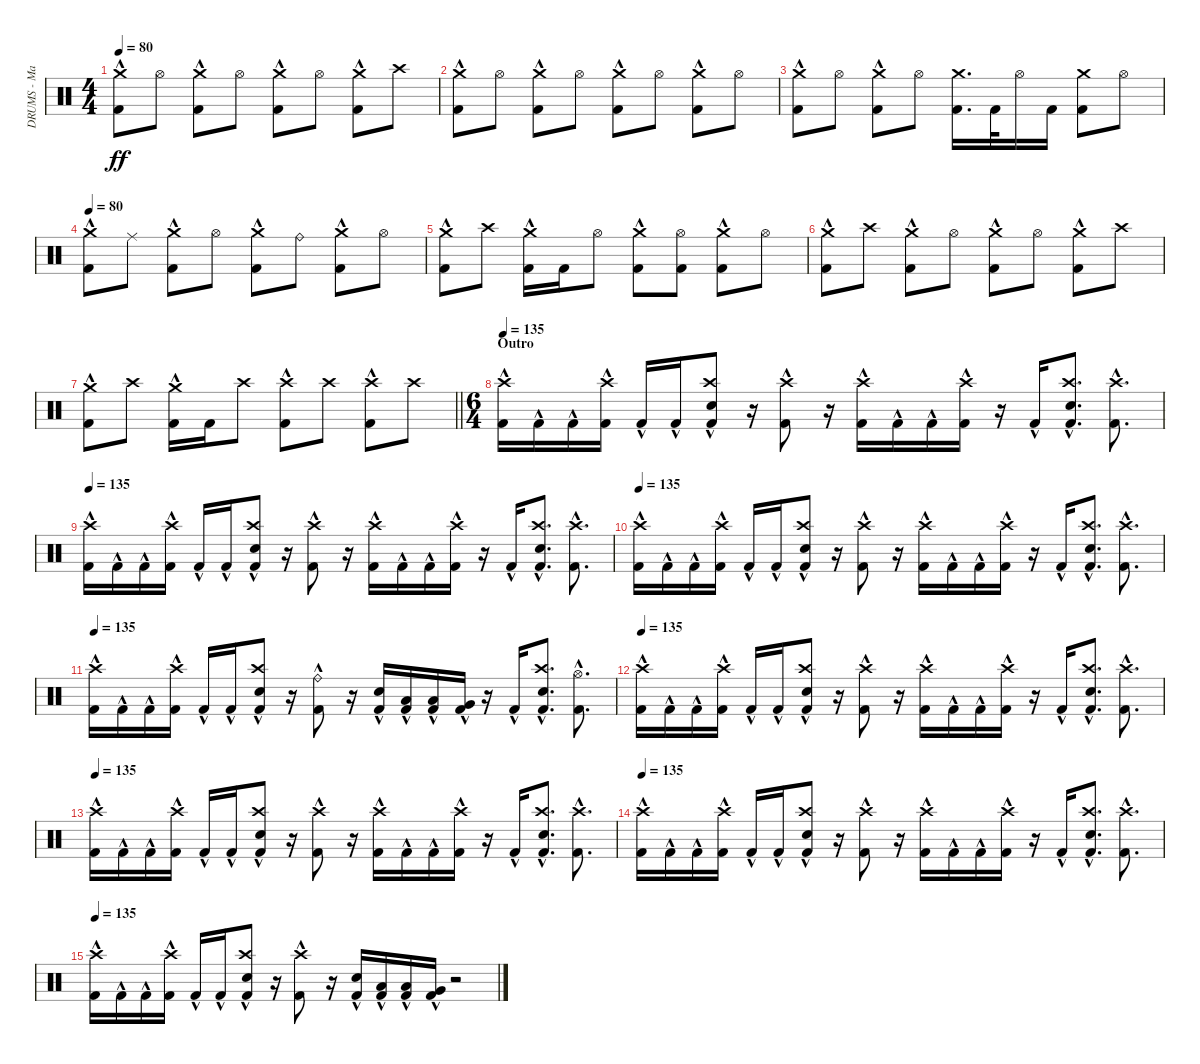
\track ("DRUMS - Mario Duplantier" "DRUMS - Ma") {instrument percussion}
\staff {score}
\articulation defaults
\ts (4 4)
\tempo 80
\clef neutral
\ks c
("Crash medium (hit)" "Kick (hit) 2"{hac}).8{dy ff} "Hi-Hat (open)".8 ("Crash medium (hit)" "Kick (hit) 2"{hac}).8 "Hi-Hat (open)".8 ("Crash medium (hit)" "Kick (hit) 2"{hac}).8 "Hi-Hat (open)".8 ("Crash medium (hit)" "Kick (hit) 2"{hac}).8 "Crash high (hit)".8 |
("Crash medium (hit)" "Kick (hit) 2"{hac}).8 "Hi-Hat (open)".8 ("Crash medium (hit)" "Kick (hit) 2"{hac}).8 "Hi-Hat (open)".8 ("Crash medium (hit)" "Kick (hit) 2"{hac}).8 "Hi-Hat (open)".8 ("Crash medium (hit)" "Kick (hit) 2"{hac}).8 "Hi-Hat (open)".8 |
("Crash medium (hit)" "Kick (hit) 2"{hac}).8 "Hi-Hat (open)".8 ("Crash medium (hit)" "Kick (hit) 2"{hac}).8 "Hi-Hat (open)".8 ("Crash medium (hit)" "Kick (hit) 2").16{d} "Kick (hit) 2".32 "Hi-Hat (open)".16 "Kick (hit) 2".16 ("Crash medium (hit)" "Kick (hit) 2").8 "Hi-Hat (open)".8 |
\tempo 80
("Crash medium (hit)" "Kick (hit) 2"{hac}).8 "Ride (middle)".8 ("Crash medium (hit)" "Kick (hit) 2"{hac}).8 "Hi-Hat (open)".8 ("Crash medium (hit)" "Kick (hit) 2"{hac}).8 "Ride (bell)".8 ("Crash medium (hit)" "Kick (hit) 2"{hac}).8 "Hi-Hat (open)".8 |
("Crash medium (hit)" "Kick (hit) 2"{hac}).8 "Crash high (hit)".8 ("Crash medium (hit)" "Kick (hit) 2"{hac}).16 "Kick (hit) 2".16 "Hi-Hat (open)".8 ("Crash medium (hit)" "Kick (hit) 2"{hac}).8 ("Hi-Hat (open)" "Kick (hit) 2").8 ("Crash medium (hit)" "Kick (hit) 2"{hac}).8 "Hi-Hat (open)".8 |
("Crash medium (hit)" "Kick (hit) 2"{hac}).8 "Crash high (hit)".8 ("Crash medium (hit)" "Kick (hit) 2"{hac}).8 "Hi-Hat (open)".8 ("Crash medium (hit)" "Kick (hit) 2"{hac}).8 "Hi-Hat (open)".8 ("Crash medium (hit)" "Kick (hit) 2"{hac}).8 "Crash high (hit)".8 |
\barLineRight lightlight
("Crash medium (hit)" "Kick (hit) 2"{hac}).8 "Crash high (hit)".8 ("Crash medium (hit)" "Kick (hit) 2"{hac}).16 "Kick (hit) 2".16 "Crash high (hit)".8 ("Crash high (hit)" "Kick (hit) 2"{hac}).8 "Crash high (hit)".8 ("Crash high (hit)" "Kick (hit) 2"{hac}).8 "Crash high (hit)".8 |
\ts (6 4)
\section ("" "Outro")
\tempo 135
("Crash high (hit)" "Kick (hit) 2"{hac}).16 "Kick (hit) 2"{hac}.16 "Kick (hit) 2"{hac}.16 ("Crash high (hit)" "Kick (hit) 2"{hac}).16 "Kick (hit) 2"{hac}.16 "Kick (hit) 2"{hac}.16 ("Crash high (hit)" "Electric Snare (hit)" "Kick (hit) 2"{hac}).8 r.16 ("Crash high (hit)" "Kick (hit) 2"{hac}).8 r.16 ("Crash high (hit)" "Kick (hit) 2"{hac}).16 "Kick (hit) 2"{hac}.16 "Kick (hit) 2"{hac}.16 ("Crash high (hit)" "Kick (hit) 2"{hac}).16 r.16 "Kick (hit) 2"{hac}.16 ("Crash high (hit)" "Electric Snare (hit)" "Kick (hit) 2"{hac}).8{d} ("Crash high (hit)" "Kick (hit) 2"{hac}).8{d} |
\tempo 135
("Crash high (hit)" "Kick (hit) 2"{hac}).16 "Kick (hit) 2"{hac}.16 "Kick (hit) 2"{hac}.16 ("Crash high (hit)" "Kick (hit) 2"{hac}).16 "Kick (hit) 2"{hac}.16 "Kick (hit) 2"{hac}.16 ("Crash high (hit)" "Electric Snare (hit)" "Kick (hit) 2"{hac}).8 r.16 ("Crash high (hit)" "Kick (hit) 2"{hac}).8 r.16 ("Crash high (hit)" "Kick (hit) 2"{hac}).16 "Kick (hit) 2"{hac}.16 "Kick (hit) 2"{hac}.16 ("Crash high (hit)" "Kick (hit) 2"{hac}).16 r.16 "Kick (hit) 2"{hac}.16 ("Crash high (hit)" "Electric Snare (hit)" "Kick (hit) 2"{hac}).8{d} ("Crash high (hit)" "Kick (hit) 2"{hac}).8{d} |
\tempo 135
("Crash high (hit)" "Kick (hit) 2"{hac}).16 "Kick (hit) 2"{hac}.16 "Kick (hit) 2"{hac}.16 ("Crash high (hit)" "Kick (hit) 2"{hac}).16 "Kick (hit) 2"{hac}.16 "Kick (hit) 2"{hac}.16 ("Crash high (hit)" "Electric Snare (hit)" "Kick (hit) 2"{hac}).8 r.16 ("Crash high (hit)" "Kick (hit) 2"{hac}).8 r.16 ("Crash high (hit)" "Kick (hit) 2"{hac}).16 "Kick (hit) 2"{hac}.16 "Kick (hit) 2"{hac}.16 ("Crash high (hit)" "Kick (hit) 2"{hac}).16 r.16 "Kick (hit) 2"{hac}.16 ("Crash high (hit)" "Electric Snare (hit)" "Kick (hit) 2"{hac}).8{d} ("Crash high (hit)" "Kick (hit) 2"{hac}).8{d} |
\tempo 135
("Crash high (hit)" "Kick (hit) 2"{hac}).16 "Kick (hit) 2"{hac}.16 "Kick (hit) 2"{hac}.16 ("Crash high (hit)" "Kick (hit) 2"{hac}).16 "Kick (hit) 2"{hac}.16 "Kick (hit) 2"{hac}.16 ("Crash high (hit)" "Electric Snare (hit)" "Kick (hit) 2"{hac}).8 r.16 ("Ride (bell)" "Kick (hit) 2"{hac}).8 r.16 ("Electric Snare (hit)" "Kick (hit) 2"{hac}).16 ("Low Tom (hit)" "Kick (hit) 2"{hac}).16 ("Low Tom (hit)" "Kick (hit) 2"{hac}).16 ("Very Low Tom (hit)" "Kick (hit) 2"{hac}).16 r.16 "Kick (hit) 2"{hac}.16 ("Crash high (hit)" "Electric Snare (hit)" "Kick (hit) 2"{hac}).8{d} ("Hi-Hat (open)" "Kick (hit) 2"{hac}).8{d} |
\tempo 135
("Crash high (hit)" "Kick (hit) 2"{hac}).16 "Kick (hit) 2"{hac}.16 "Kick (hit) 2"{hac}.16 ("Crash high (hit)" "Kick (hit) 2"{hac}).16 "Kick (hit) 2"{hac}.16 "Kick (hit) 2"{hac}.16 ("Crash high (hit)" "Electric Snare (hit)" "Kick (hit) 2"{hac}).8 r.16 ("Crash high (hit)" "Kick (hit) 2"{hac}).8 r.16 ("Crash high (hit)" "Kick (hit) 2"{hac}).16 "Kick (hit) 2"{hac}.16 "Kick (hit) 2"{hac}.16 ("Crash high (hit)" "Kick (hit) 2"{hac}).16 r.16 "Kick (hit) 2"{hac}.16 ("Crash high (hit)" "Electric Snare (hit)" "Kick (hit) 2"{hac}).8{d} ("Crash high (hit)" "Kick (hit) 2"{hac}).8{d} |
\tempo 135
("Crash high (hit)" "Kick (hit) 2"{hac}).16 "Kick (hit) 2"{hac}.16 "Kick (hit) 2"{hac}.16 ("Crash high (hit)" "Kick (hit) 2"{hac}).16 "Kick (hit) 2"{hac}.16 "Kick (hit) 2"{hac}.16 ("Crash high (hit)" "Electric Snare (hit)" "Kick (hit) 2"{hac}).8 r.16 ("Crash high (hit)" "Kick (hit) 2"{hac}).8 r.16 ("Crash high (hit)" "Kick (hit) 2"{hac}).16 "Kick (hit) 2"{hac}.16 "Kick (hit) 2"{hac}.16 ("Crash high (hit)" "Kick (hit) 2"{hac}).16 r.16 "Kick (hit) 2"{hac}.16 ("Crash high (hit)" "Electric Snare (hit)" "Kick (hit) 2"{hac}).8{d} ("Crash high (hit)" "Kick (hit) 2"{hac}).8{d} |
\tempo 135
("Crash high (hit)" "Kick (hit) 2"{hac}).16 "Kick (hit) 2"{hac}.16 "Kick (hit) 2"{hac}.16 ("Crash high (hit)" "Kick (hit) 2"{hac}).16 "Kick (hit) 2"{hac}.16 "Kick (hit) 2"{hac}.16 ("Crash high (hit)" "Electric Snare (hit)" "Kick (hit) 2"{hac}).8 r.16 ("Crash high (hit)" "Kick (hit) 2"{hac}).8 r.16 ("Crash high (hit)" "Kick (hit) 2"{hac}).16 "Kick (hit) 2"{hac}.16 "Kick (hit) 2"{hac}.16 ("Crash high (hit)" "Kick (hit) 2"{hac}).16 r.16 "Kick (hit) 2"{hac}.16 ("Crash high (hit)" "Electric Snare (hit)" "Kick (hit) 2"{hac}).8{d} ("Crash high (hit)" "Kick (hit) 2"{hac}).8{d} |
\tempo 135
("Crash high (hit)" "Kick (hit) 2"{hac}).16 "Kick (hit) 2"{hac}.16 "Kick (hit) 2"{hac}.16 ("Crash high (hit)" "Kick (hit) 2"{hac}).16 "Kick (hit) 2"{hac}.16 "Kick (hit) 2"{hac}.16 ("Crash high (hit)" "Electric Snare (hit)" "Kick (hit) 2"{hac}).8 r.16 ("Crash high (hit)" "Kick (hit) 2"{hac}).8 r.16 ("Electric Snare (hit)" "Kick (hit) 2"{hac}).16 ("Low Tom (hit)" "Kick (hit) 2"{hac}).16 ("Low Tom (hit)" "Kick (hit) 2"{hac}).16 ("Very Low Tom (hit)" "Kick (hit) 2"{hac}).16 r.2
